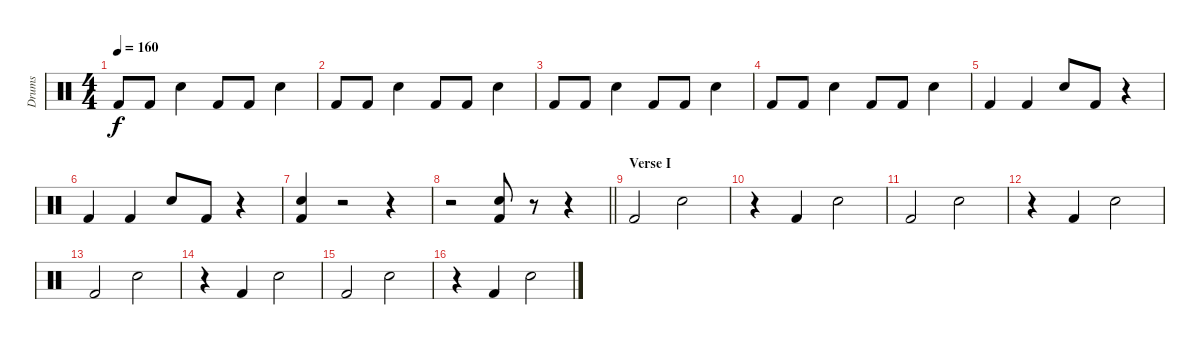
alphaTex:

\track ("Drums" "Drums") {instrument percussion}
\staff {score}
\articulation defaults
\ts (4 4)
\tempo 160
\clef neutral
\ks c "Kick (hit) 2".8{dy f} "Kick (hit) 2".8 "Electric Snare (hit)".4 "Kick (hit) 2".8 "Kick (hit) 2".8 "Electric Snare (hit)".4
|
"Kick (hit) 2".8 "Kick (hit) 2".8 "Electric Snare (hit)".4 "Kick (hit) 2".8 "Kick (hit) 2".8 "Electric Snare (hit)".4 |
"Kick (hit) 2".8 "Kick (hit) 2".8 "Electric Snare (hit)".4 "Kick (hit) 2".8 "Kick (hit) 2".8 "Electric Snare (hit)".4 |
"Kick (hit) 2".8 "Kick (hit) 2".8 "Electric Snare (hit)".4 "Kick (hit) 2".8 "Kick (hit) 2".8 "Electric Snare (hit)".4 |
"Kick (hit) 2".4 "Kick (hit) 2".4 "Electric Snare (hit)".8 "Kick (hit) 2".8 r.4 |
"Kick (hit) 2".4 "Kick (hit) 2".4 "Electric Snare (hit)".8 "Kick (hit) 2".8 r.4 |
("Kick (hit) 2" "Electric Snare (hit)").4 r.2 r.4 |
\barLineRight lightlight
r.2 ("Kick (hit) 2" "Electric Snare (hit)").8 r.8 r.4 |
\section ("" "Verse I")
"Kick (hit) 2".2 "Electric Snare (hit)".2 |
r.4 "Kick (hit) 2".4 "Electric Snare (hit)".2 |
"Kick (hit) 2".2 "Electric Snare (hit)".2 |
r.4 "Kick (hit) 2".4 "Electric Snare (hit)".2 |
"Kick (hit) 2".2 "Electric Snare (hit)".2 |
r.4 "Kick (hit) 2".4 "Electric Snare (hit)".2 |
"Kick (hit) 2".2 "Electric Snare (hit)".2 |
r.4 "Kick (hit) 2".4 "Electric Snare (hit)".2
